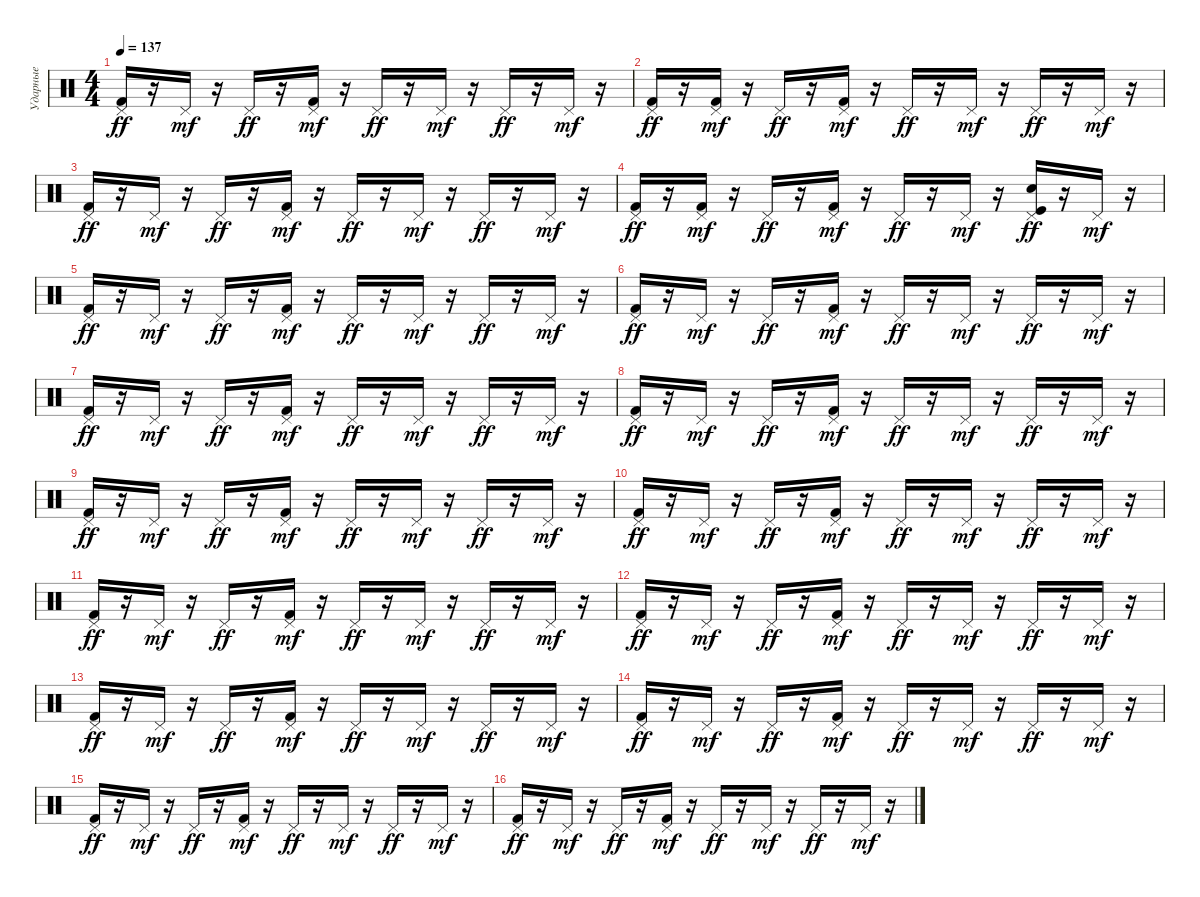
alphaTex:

\track ("Ударные" "Ударные") {instrument percussion}
\staff {score}
\articulation defaults
\ts (4 4)
\tempo 137
\clef neutral
\ks c
("Pedal Hi-Hat (hit)" "Kick (hit) 2").16{dy ff} r.16 "Pedal Hi-Hat (hit)".16{dy mf} r.16 "Pedal Hi-Hat (hit)".16{dy ff} r.16 ("Pedal Hi-Hat (hit)" "Kick (hit) 2").16{dy mf} r.16 "Pedal Hi-Hat (hit)".16{dy ff} r.16 "Pedal Hi-Hat (hit)".16{dy mf} r.16 "Pedal Hi-Hat (hit)".16{dy ff} r.16 "Pedal Hi-Hat (hit)".16{dy mf} r.16 |
("Pedal Hi-Hat (hit)" "Kick (hit) 2").16{dy ff} r.16 ("Pedal Hi-Hat (hit)" "Kick (hit) 2").16{dy mf} r.16 "Pedal Hi-Hat (hit)".16{dy ff} r.16 ("Pedal Hi-Hat (hit)" "Kick (hit) 2").16{dy mf} r.16 "Pedal Hi-Hat (hit)".16{dy ff} r.16 "Pedal Hi-Hat (hit)".16{dy mf} r.16 "Pedal Hi-Hat (hit)".16{dy ff} r.16 "Pedal Hi-Hat (hit)".16{dy mf} r.16 |
("Pedal Hi-Hat (hit)" "Kick (hit) 2").16{dy ff} r.16 "Pedal Hi-Hat (hit)".16{dy mf} r.16 "Pedal Hi-Hat (hit)".16{dy ff} r.16 ("Pedal Hi-Hat (hit)" "Kick (hit) 2").16{dy mf} r.16 "Pedal Hi-Hat (hit)".16{dy ff} r.16 "Pedal Hi-Hat (hit)".16{dy mf} r.16 "Pedal Hi-Hat (hit)".16{dy ff} r.16 "Pedal Hi-Hat (hit)".16{dy mf} r.16 |
("Pedal Hi-Hat (hit)" "Kick (hit) 2").16{dy ff} r.16 ("Pedal Hi-Hat (hit)" "Kick (hit) 2").16{dy mf} r.16 "Pedal Hi-Hat (hit)".16{dy ff} r.16 ("Pedal Hi-Hat (hit)" "Kick (hit) 2").16{dy mf} r.16 "Pedal Hi-Hat (hit)".16{dy ff} r.16 "Pedal Hi-Hat (hit)".16{dy mf} r.16 ("Pedal Hi-Hat (hit)" "Electric Snare (hit)" "Kick (hit)").16{dy ff} r.16 "Pedal Hi-Hat (hit)".16{dy mf} r.16 |
("Pedal Hi-Hat (hit)" "Kick (hit) 2").16{dy ff} r.16 "Pedal Hi-Hat (hit)".16{dy mf} r.16 "Pedal Hi-Hat (hit)".16{dy ff} r.16 ("Pedal Hi-Hat (hit)" "Kick (hit) 2").16{dy mf} r.16 "Pedal Hi-Hat (hit)".16{dy ff} r.16 "Pedal Hi-Hat (hit)".16{dy mf} r.16 "Pedal Hi-Hat (hit)".16{dy ff} r.16 "Pedal Hi-Hat (hit)".16{dy mf} r.16 |
("Pedal Hi-Hat (hit)" "Kick (hit) 2").16{dy ff} r.16 "Pedal Hi-Hat (hit)".16{dy mf} r.16 "Pedal Hi-Hat (hit)".16{dy ff} r.16 ("Pedal Hi-Hat (hit)" "Kick (hit) 2").16{dy mf} r.16 "Pedal Hi-Hat (hit)".16{dy ff} r.16 "Pedal Hi-Hat (hit)".16{dy mf} r.16 "Pedal Hi-Hat (hit)".16{dy ff} r.16 "Pedal Hi-Hat (hit)".16{dy mf} r.16 |
("Pedal Hi-Hat (hit)" "Kick (hit) 2").16{dy ff} r.16 "Pedal Hi-Hat (hit)".16{dy mf} r.16 "Pedal Hi-Hat (hit)".16{dy ff} r.16 ("Pedal Hi-Hat (hit)" "Kick (hit) 2").16{dy mf} r.16 "Pedal Hi-Hat (hit)".16{dy ff} r.16 "Pedal Hi-Hat (hit)".16{dy mf} r.16 "Pedal Hi-Hat (hit)".16{dy ff} r.16 "Pedal Hi-Hat (hit)".16{dy mf} r.16 |
("Pedal Hi-Hat (hit)" "Kick (hit) 2").16{dy ff} r.16 "Pedal Hi-Hat (hit)".16{dy mf} r.16 "Pedal Hi-Hat (hit)".16{dy ff} r.16 ("Pedal Hi-Hat (hit)" "Kick (hit) 2").16{dy mf} r.16 "Pedal Hi-Hat (hit)".16{dy ff} r.16 "Pedal Hi-Hat (hit)".16{dy mf} r.16 "Pedal Hi-Hat (hit)".16{dy ff} r.16 "Pedal Hi-Hat (hit)".16{dy mf} r.16 |
("Pedal Hi-Hat (hit)" "Kick (hit) 2").16{dy ff} r.16 "Pedal Hi-Hat (hit)".16{dy mf} r.16 "Pedal Hi-Hat (hit)".16{dy ff} r.16 ("Pedal Hi-Hat (hit)" "Kick (hit) 2").16{dy mf} r.16 "Pedal Hi-Hat (hit)".16{dy ff} r.16 "Pedal Hi-Hat (hit)".16{dy mf} r.16 "Pedal Hi-Hat (hit)".16{dy ff} r.16 "Pedal Hi-Hat (hit)".16{dy mf} r.16 |
("Pedal Hi-Hat (hit)" "Kick (hit) 2").16{dy ff} r.16 "Pedal Hi-Hat (hit)".16{dy mf} r.16 "Pedal Hi-Hat (hit)".16{dy ff} r.16 ("Pedal Hi-Hat (hit)" "Kick (hit) 2").16{dy mf} r.16 "Pedal Hi-Hat (hit)".16{dy ff} r.16 "Pedal Hi-Hat (hit)".16{dy mf} r.16 "Pedal Hi-Hat (hit)".16{dy ff} r.16 "Pedal Hi-Hat (hit)".16{dy mf} r.16 |
("Pedal Hi-Hat (hit)" "Kick (hit) 2").16{dy ff} r.16 "Pedal Hi-Hat (hit)".16{dy mf} r.16 "Pedal Hi-Hat (hit)".16{dy ff} r.16 ("Pedal Hi-Hat (hit)" "Kick (hit) 2").16{dy mf} r.16 "Pedal Hi-Hat (hit)".16{dy ff} r.16 "Pedal Hi-Hat (hit)".16{dy mf} r.16 "Pedal Hi-Hat (hit)".16{dy ff} r.16 "Pedal Hi-Hat (hit)".16{dy mf} r.16 |
("Pedal Hi-Hat (hit)" "Kick (hit) 2").16{dy ff} r.16 "Pedal Hi-Hat (hit)".16{dy mf} r.16 "Pedal Hi-Hat (hit)".16{dy ff} r.16 ("Pedal Hi-Hat (hit)" "Kick (hit) 2").16{dy mf} r.16 "Pedal Hi-Hat (hit)".16{dy ff} r.16 "Pedal Hi-Hat (hit)".16{dy mf} r.16 "Pedal Hi-Hat (hit)".16{dy ff} r.16 "Pedal Hi-Hat (hit)".16{dy mf} r.16 |
("Pedal Hi-Hat (hit)" "Kick (hit) 2").16{dy ff} r.16 "Pedal Hi-Hat (hit)".16{dy mf} r.16 "Pedal Hi-Hat (hit)".16{dy ff} r.16 ("Pedal Hi-Hat (hit)" "Kick (hit) 2").16{dy mf} r.16 "Pedal Hi-Hat (hit)".16{dy ff} r.16 "Pedal Hi-Hat (hit)".16{dy mf} r.16 "Pedal Hi-Hat (hit)".16{dy ff} r.16 "Pedal Hi-Hat (hit)".16{dy mf} r.16 |
("Pedal Hi-Hat (hit)" "Kick (hit) 2").16{dy ff} r.16 "Pedal Hi-Hat (hit)".16{dy mf} r.16 "Pedal Hi-Hat (hit)".16{dy ff} r.16 ("Pedal Hi-Hat (hit)" "Kick (hit) 2").16{dy mf} r.16 "Pedal Hi-Hat (hit)".16{dy ff} r.16 "Pedal Hi-Hat (hit)".16{dy mf} r.16 "Pedal Hi-Hat (hit)".16{dy ff} r.16 "Pedal Hi-Hat (hit)".16{dy mf} r.16 |
("Pedal Hi-Hat (hit)" "Kick (hit) 2").16{dy ff} r.16 "Pedal Hi-Hat (hit)".16{dy mf} r.16 "Pedal Hi-Hat (hit)".16{dy ff} r.16 ("Pedal Hi-Hat (hit)" "Kick (hit) 2").16{dy mf} r.16 "Pedal Hi-Hat (hit)".16{dy ff} r.16 "Pedal Hi-Hat (hit)".16{dy mf} r.16 "Pedal Hi-Hat (hit)".16{dy ff} r.16 "Pedal Hi-Hat (hit)".16{dy mf} r.16 |
("Pedal Hi-Hat (hit)" "Kick (hit) 2").16{dy ff} r.16 "Pedal Hi-Hat (hit)".16{dy mf} r.16 "Pedal Hi-Hat (hit)".16{dy ff} r.16 ("Pedal Hi-Hat (hit)" "Kick (hit) 2").16{dy mf} r.16 "Pedal Hi-Hat (hit)".16{dy ff} r.16 "Pedal Hi-Hat (hit)".16{dy mf} r.16 "Pedal Hi-Hat (hit)".16{dy ff} r.16 "Pedal Hi-Hat (hit)".16{dy mf} r.16
